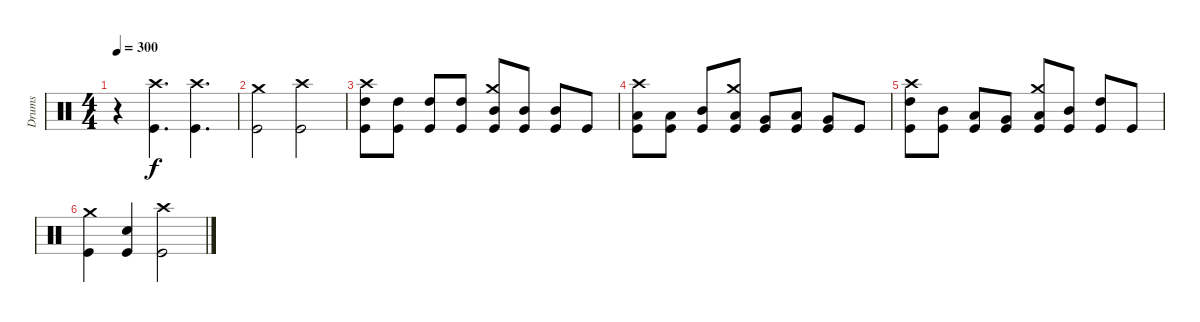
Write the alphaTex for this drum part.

\track ("Drums" "Drums") {instrument percussion}
\staff {score}
\articulation defaults
\ts (4 4)
\tempo 300
\clef neutral
\ks c
r.4{dy f} ("Crash high (hit)" "Kick (hit)").4{d} ("Crash high (hit)" "Kick (hit)").4{d} |
("Crash medium (hit)" "Kick (hit)").2 ("Crash high (hit)" "Kick (hit)").2 |
("Crash high (hit)" "High Tom (hit)" "Kick (hit)").8 ("High Tom (hit)" "Kick (hit)").8 ("High Tom (hit)" "Kick (hit)").8 ("High Tom (hit)" "Kick (hit)").8 ("Crash medium (hit)" "Mid Tom (hit)" "Kick (hit)").8 ("Mid Tom (hit)" "Kick (hit)").8 ("Mid Tom (hit)" "Kick (hit)").8 "Kick (hit)".8 |
("Crash high (hit)" "Low Tom (hit)" "Kick (hit)").8 ("Low Tom (hit)" "Kick (hit)").8 ("Mid Tom (hit)" "Kick (hit)").8 ("Crash medium (hit)" "Low Tom (hit)" "Kick (hit)").8 ("Very Low Tom (hit)" "Kick (hit)").8 ("Low Tom (hit)" "Kick (hit)").8 ("Very Low Tom (hit)" "Kick (hit)").8 "Kick (hit)".8 |
("Crash high (hit)" "High Tom (hit)" "Kick (hit)").8 ("Mid Tom (hit)" "Kick (hit)").8 ("Low Tom (hit)" "Kick (hit)").8 ("Very Low Tom (hit)" "Kick (hit)").8 ("Crash medium (hit)" "Low Tom (hit)" "Kick (hit)").8 ("Mid Tom (hit)" "Kick (hit)").8 ("High Tom (hit)" "Kick (hit)").8 "Kick (hit)".8 |
("Crash medium (hit)" "Kick (hit)").4 ("Electric Snare (hit)" "Kick (hit)").4 ("Crash high (hit)" "Kick (hit)").2
